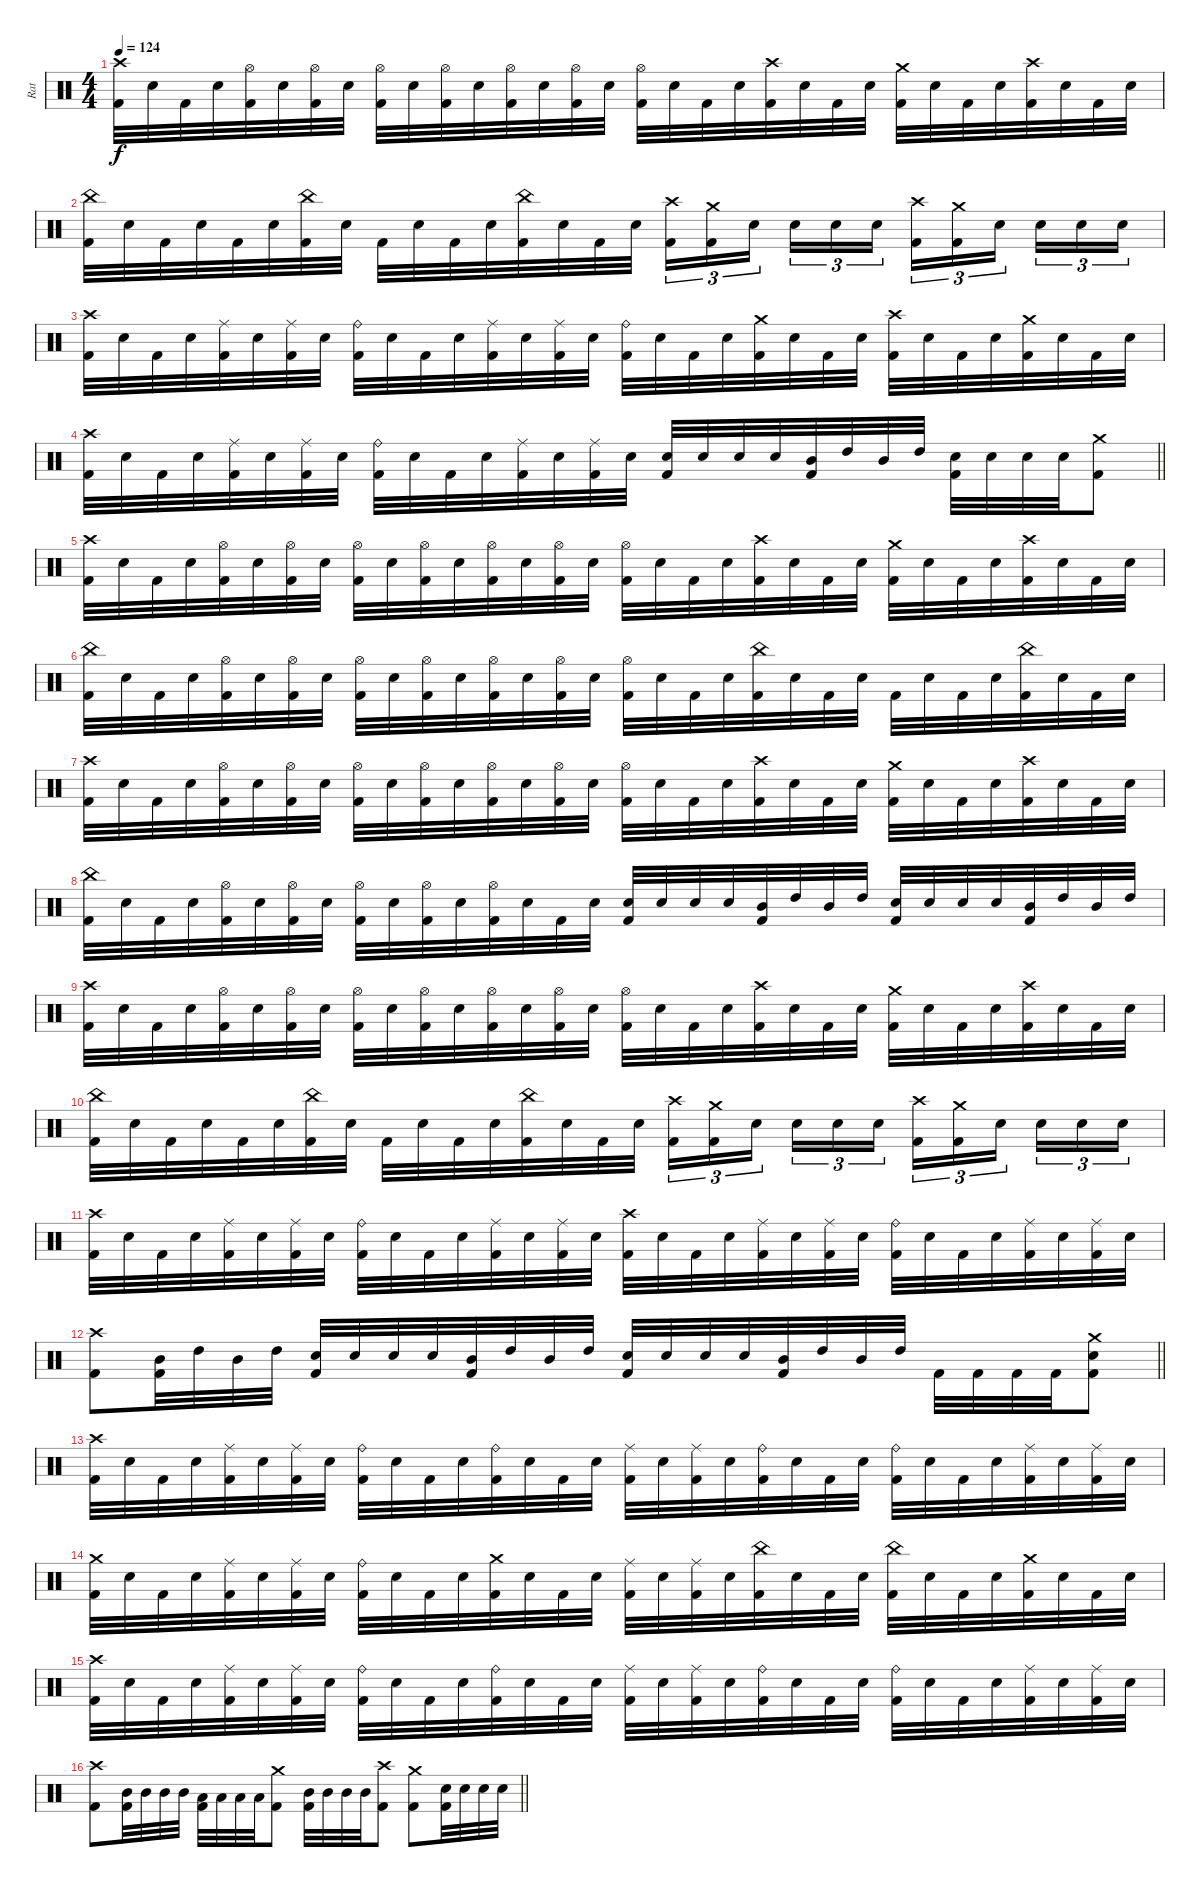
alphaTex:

\track ("Rat" "Rat") {instrument percussion}
\staff {score}
\articulation defaults
\ts (4 4)
\tempo 124
\clef neutral
\ks c
("Crash high (hit)" "Kick (hit) 2").32{dy f} "Electric Snare (hit)".32 "Kick (hit) 2".32 "Electric Snare (hit)".32 ("Hi-Hat (open)" "Kick (hit) 2").32 "Electric Snare (hit)".32 ("Hi-Hat (open)" "Kick (hit) 2").32 "Electric Snare (hit)".32 ("Hi-Hat (open)" "Kick (hit) 2").32 "Electric Snare (hit)".32 ("Hi-Hat (open)" "Kick (hit) 2").32 "Electric Snare (hit)".32 ("Hi-Hat (open)" "Kick (hit) 2").32 "Electric Snare (hit)".32 ("Hi-Hat (open)" "Kick (hit) 2").32 "Electric Snare (hit)".32 ("Hi-Hat (open)" "Kick (hit) 2").32 "Electric Snare (hit)".32 "Kick (hit) 2".32 "Electric Snare (hit)".32 ("Crash high (hit)" "Kick (hit) 2").32 "Electric Snare (hit)".32 "Kick (hit) 2".32 "Electric Snare (hit)".32 ("Crash medium (hit)" "Kick (hit) 2").32 "Electric Snare (hit)".32 "Kick (hit) 2".32 "Electric Snare (hit)".32 ("Crash high (hit)" "Kick (hit) 2").32 "Electric Snare (hit)".32 "Kick (hit) 2".32 "Electric Snare (hit)".32 |
("China (hit)" "Kick (hit) 2").32 "Electric Snare (hit)".32 "Kick (hit) 2".32 "Electric Snare (hit)".32 "Kick (hit) 2".32 "Electric Snare (hit)".32 ("China (hit)" "Kick (hit) 2").32 "Electric Snare (hit)".32 "Kick (hit) 2".32 "Electric Snare (hit)".32 "Kick (hit) 2".32 "Electric Snare (hit)".32 ("China (hit)" "Kick (hit) 2").32 "Electric Snare (hit)".32 "Kick (hit) 2".32 "Electric Snare (hit)".32 ("Crash high (hit)" "Kick (hit) 2").16{tu (3 2)} ("Crash medium (hit)" "Kick (hit) 2").16{tu (3 2)} "Electric Snare (hit)".16{tu (3 2) beam splitsecondary} "Electric Snare (hit)".16{tu (3 2)} "Electric Snare (hit)".16{tu (3 2)} "Electric Snare (hit)".16{tu (3 2)} ("Crash high (hit)" "Kick (hit) 2").16{tu (3 2)} ("Crash medium (hit)" "Kick (hit) 2").16{tu (3 2)} "Electric Snare (hit)".16{tu (3 2) beam splitsecondary} "Electric Snare (hit)".16{tu (3 2)} "Electric Snare (hit)".16{tu (3 2)} "Electric Snare (hit)".16{tu (3 2)} |
("Crash high (hit)" "Kick (hit) 2").32 "Electric Snare (hit)".32 "Kick (hit) 2".32 "Electric Snare (hit)".32 ("Ride (middle)" "Kick (hit) 2").32 "Electric Snare (hit)".32 ("Ride (middle)" "Kick (hit) 2").32 "Electric Snare (hit)".32 ("Ride (bell)" "Kick (hit) 2").32 "Electric Snare (hit)".32 "Kick (hit) 2".32 "Electric Snare (hit)".32 ("Ride (middle)" "Kick (hit) 2").32 "Electric Snare (hit)".32 ("Ride (middle)" "Kick (hit) 2").32 "Electric Snare (hit)".32 ("Ride (bell)" "Kick (hit) 2").32 "Electric Snare (hit)".32 "Kick (hit) 2".32 "Electric Snare (hit)".32 ("Crash medium (hit)" "Kick (hit) 2").32 "Electric Snare (hit)".32 "Kick (hit) 2".32 "Electric Snare (hit)".32 ("Crash high (hit)" "Kick (hit) 2").32 "Electric Snare (hit)".32 "Kick (hit) 2".32 "Electric Snare (hit)".32 ("Crash medium (hit)" "Kick (hit) 2").32 "Electric Snare (hit)".32 "Kick (hit) 2".32 "Electric Snare (hit)".32 |
\barLineRight lightlight
("Crash high (hit)" "Kick (hit) 2").32 "Electric Snare (hit)".32 "Kick (hit) 2".32 "Electric Snare (hit)".32 ("Ride (middle)" "Kick (hit) 2").32 "Electric Snare (hit)".32 ("Ride (middle)" "Kick (hit) 2").32 "Electric Snare (hit)".32 ("Ride (bell)" "Kick (hit) 2").32 "Electric Snare (hit)".32 "Kick (hit) 2".32 "Electric Snare (hit)".32 ("Ride (middle)" "Kick (hit) 2").32 "Electric Snare (hit)".32 ("Ride (middle)" "Kick (hit) 2").32 "Electric Snare (hit)".32 ("Electric Snare (hit)" "Kick (hit) 2").32 "Electric Snare (hit)".32 "Electric Snare (hit)".32 "Electric Snare (hit)".32 ("Mid Tom (hit)" "Kick (hit) 2").32 "High Tom (hit)".32 "Mid Tom (hit)".32 "High Tom (hit)".32 ("Electric Snare (hit)" "Kick (hit) 2").32 "Electric Snare (hit)".32 "Electric Snare (hit)".32 "Electric Snare (hit)".32 ("Crash medium (hit)" "Kick (hit) 2").8 |
("Crash high (hit)" "Kick (hit) 2").32 "Electric Snare (hit)".32 "Kick (hit) 2".32 "Electric Snare (hit)".32 ("Hi-Hat (open)" "Kick (hit) 2").32 "Electric Snare (hit)".32 ("Hi-Hat (open)" "Kick (hit) 2").32 "Electric Snare (hit)".32 ("Hi-Hat (open)" "Kick (hit) 2").32 "Electric Snare (hit)".32 ("Hi-Hat (open)" "Kick (hit) 2").32 "Electric Snare (hit)".32 ("Hi-Hat (open)" "Kick (hit) 2").32 "Electric Snare (hit)".32 ("Hi-Hat (open)" "Kick (hit) 2").32 "Electric Snare (hit)".32 ("Hi-Hat (open)" "Kick (hit) 2").32 "Electric Snare (hit)".32 "Kick (hit) 2".32 "Electric Snare (hit)".32 ("Crash high (hit)" "Kick (hit) 2").32 "Electric Snare (hit)".32 "Kick (hit) 2".32 "Electric Snare (hit)".32 ("Crash medium (hit)" "Kick (hit) 2").32 "Electric Snare (hit)".32 "Kick (hit) 2".32 "Electric Snare (hit)".32 ("Crash high (hit)" "Kick (hit) 2").32 "Electric Snare (hit)".32 "Kick (hit) 2".32 "Electric Snare (hit)".32 |
("China (hit)" "Kick (hit) 2").32 "Electric Snare (hit)".32 "Kick (hit) 2".32 "Electric Snare (hit)".32 ("Hi-Hat (open)" "Kick (hit) 2").32 "Electric Snare (hit)".32 ("Hi-Hat (open)" "Kick (hit) 2").32 "Electric Snare (hit)".32 ("Hi-Hat (open)" "Kick (hit) 2").32 "Electric Snare (hit)".32 ("Hi-Hat (open)" "Kick (hit) 2").32 "Electric Snare (hit)".32 ("Hi-Hat (open)" "Kick (hit) 2").32 "Electric Snare (hit)".32 ("Hi-Hat (open)" "Kick (hit) 2").32 "Electric Snare (hit)".32 ("Hi-Hat (open)" "Kick (hit) 2").32 "Electric Snare (hit)".32 "Kick (hit) 2".32 "Electric Snare (hit)".32 ("China (hit)" "Kick (hit) 2").32 "Electric Snare (hit)".32 "Kick (hit) 2".32 "Electric Snare (hit)".32 "Kick (hit) 2".32 "Electric Snare (hit)".32 "Kick (hit) 2".32 "Electric Snare (hit)".32 ("China (hit)" "Kick (hit) 2").32 "Electric Snare (hit)".32 "Kick (hit) 2".32 "Electric Snare (hit)".32 |
("Crash high (hit)" "Kick (hit) 2").32 "Electric Snare (hit)".32 "Kick (hit) 2".32 "Electric Snare (hit)".32 ("Hi-Hat (open)" "Kick (hit) 2").32 "Electric Snare (hit)".32 ("Hi-Hat (open)" "Kick (hit) 2").32 "Electric Snare (hit)".32 ("Hi-Hat (open)" "Kick (hit) 2").32 "Electric Snare (hit)".32 ("Hi-Hat (open)" "Kick (hit) 2").32 "Electric Snare (hit)".32 ("Hi-Hat (open)" "Kick (hit) 2").32 "Electric Snare (hit)".32 ("Hi-Hat (open)" "Kick (hit) 2").32 "Electric Snare (hit)".32 ("Hi-Hat (open)" "Kick (hit) 2").32 "Electric Snare (hit)".32 "Kick (hit) 2".32 "Electric Snare (hit)".32 ("Crash high (hit)" "Kick (hit) 2").32 "Electric Snare (hit)".32 "Kick (hit) 2".32 "Electric Snare (hit)".32 ("Crash medium (hit)" "Kick (hit) 2").32 "Electric Snare (hit)".32 "Kick (hit) 2".32 "Electric Snare (hit)".32 ("Crash high (hit)" "Kick (hit) 2").32 "Electric Snare (hit)".32 "Kick (hit) 2".32 "Electric Snare (hit)".32 |
("China (hit)" "Kick (hit) 2").32 "Electric Snare (hit)".32 "Kick (hit) 2".32 "Electric Snare (hit)".32 ("Hi-Hat (open)" "Kick (hit) 2").32 "Electric Snare (hit)".32 ("Hi-Hat (open)" "Kick (hit) 2").32 "Electric Snare (hit)".32 ("Hi-Hat (open)" "Kick (hit) 2").32 "Electric Snare (hit)".32 ("Hi-Hat (open)" "Kick (hit) 2").32 "Electric Snare (hit)".32 ("Hi-Hat (open)" "Kick (hit) 2").32 "Electric Snare (hit)".32 "Kick (hit) 2".32 "Electric Snare (hit)".32 ("Electric Snare (hit)" "Kick (hit) 2").32 "Electric Snare (hit)".32 "Electric Snare (hit)".32 "Electric Snare (hit)".32 ("Mid Tom (hit)" "Kick (hit) 2").32 "High Tom (hit)".32 "Mid Tom (hit)".32 "High Tom (hit)".32 ("Electric Snare (hit)" "Kick (hit) 2").32 "Electric Snare (hit)".32 "Electric Snare (hit)".32 "Electric Snare (hit)".32 ("Mid Tom (hit)" "Kick (hit) 2").32 "High Tom (hit)".32 "Mid Tom (hit)".32 "High Tom (hit)".32 |
("Crash high (hit)" "Kick (hit) 2").32 "Electric Snare (hit)".32 "Kick (hit) 2".32 "Electric Snare (hit)".32 ("Hi-Hat (open)" "Kick (hit) 2").32 "Electric Snare (hit)".32 ("Hi-Hat (open)" "Kick (hit) 2").32 "Electric Snare (hit)".32 ("Hi-Hat (open)" "Kick (hit) 2").32 "Electric Snare (hit)".32 ("Hi-Hat (open)" "Kick (hit) 2").32 "Electric Snare (hit)".32 ("Hi-Hat (open)" "Kick (hit) 2").32 "Electric Snare (hit)".32 ("Hi-Hat (open)" "Kick (hit) 2").32 "Electric Snare (hit)".32 ("Hi-Hat (open)" "Kick (hit) 2").32 "Electric Snare (hit)".32 "Kick (hit) 2".32 "Electric Snare (hit)".32 ("Crash high (hit)" "Kick (hit) 2").32 "Electric Snare (hit)".32 "Kick (hit) 2".32 "Electric Snare (hit)".32 ("Crash medium (hit)" "Kick (hit) 2").32 "Electric Snare (hit)".32 "Kick (hit) 2".32 "Electric Snare (hit)".32 ("Crash high (hit)" "Kick (hit) 2").32 "Electric Snare (hit)".32 "Kick (hit) 2".32 "Electric Snare (hit)".32 |
("China (hit)" "Kick (hit) 2").32 "Electric Snare (hit)".32 "Kick (hit) 2".32 "Electric Snare (hit)".32 "Kick (hit) 2".32 "Electric Snare (hit)".32 ("China (hit)" "Kick (hit) 2").32 "Electric Snare (hit)".32 "Kick (hit) 2".32 "Electric Snare (hit)".32 "Kick (hit) 2".32 "Electric Snare (hit)".32 ("China (hit)" "Kick (hit) 2").32 "Electric Snare (hit)".32 "Kick (hit) 2".32 "Electric Snare (hit)".32 ("Crash high (hit)" "Kick (hit) 2").16{tu (3 2)} ("Crash medium (hit)" "Kick (hit) 2").16{tu (3 2)} "Electric Snare (hit)".16{tu (3 2) beam splitsecondary} "Electric Snare (hit)".16{tu (3 2)} "Electric Snare (hit)".16{tu (3 2)} "Electric Snare (hit)".16{tu (3 2)} ("Crash high (hit)" "Kick (hit) 2").16{tu (3 2)} ("Crash medium (hit)" "Kick (hit) 2").16{tu (3 2)} "Electric Snare (hit)".16{tu (3 2) beam splitsecondary} "Electric Snare (hit)".16{tu (3 2)} "Electric Snare (hit)".16{tu (3 2)} "Electric Snare (hit)".16{tu (3 2)} |
("Crash high (hit)" "Kick (hit) 2").32 "Electric Snare (hit)".32 "Kick (hit) 2".32 "Electric Snare (hit)".32 ("Ride (middle)" "Kick (hit) 2").32 "Electric Snare (hit)".32 ("Ride (middle)" "Kick (hit) 2").32 "Electric Snare (hit)".32 ("Ride (bell)" "Kick (hit) 2").32 "Electric Snare (hit)".32 "Kick (hit) 2".32 "Electric Snare (hit)".32 ("Ride (middle)" "Kick (hit) 2").32 "Electric Snare (hit)".32 ("Ride (middle)" "Kick (hit) 2").32 "Electric Snare (hit)".32 ("Crash high (hit)" "Kick (hit) 2").32 "Electric Snare (hit)".32 "Kick (hit) 2".32 "Electric Snare (hit)".32 ("Ride (middle)" "Kick (hit) 2").32 "Electric Snare (hit)".32 ("Ride (middle)" "Kick (hit) 2").32 "Electric Snare (hit)".32 ("Ride (bell)" "Kick (hit) 2").32 "Electric Snare (hit)".32 "Kick (hit) 2".32 "Electric Snare (hit)".32 ("Ride (middle)" "Kick (hit) 2").32 "Electric Snare (hit)".32 ("Ride (middle)" "Kick (hit) 2").32 "Electric Snare (hit)".32 |
\barLineRight lightlight
("Crash high (hit)" "Kick (hit) 2").8 ("Mid Tom (hit)" "Kick (hit) 2").32 "High Tom (hit)".32 "Mid Tom (hit)".32 "High Tom (hit)".32 ("Electric Snare (hit)" "Kick (hit) 2").32 "Electric Snare (hit)".32 "Electric Snare (hit)".32 "Electric Snare (hit)".32 ("Mid Tom (hit)" "Kick (hit) 2").32 "High Tom (hit)".32 "Mid Tom (hit)".32 "High Tom (hit)".32 ("Electric Snare (hit)" "Kick (hit) 2").32 "Electric Snare (hit)".32 "Electric Snare (hit)".32 "Electric Snare (hit)".32 ("Mid Tom (hit)" "Kick (hit) 2").32 "High Tom (hit)".32 "Mid Tom (hit)".32 "High Tom (hit)".32 "Kick (hit) 2".32 "Kick (hit) 2".32 "Kick (hit) 2".32 "Kick (hit) 2".32 ("Crash medium (hit)" "Electric Snare (hit)" "Kick (hit) 2").8 |
("Crash high (hit)" "Kick (hit) 2").32 "Electric Snare (hit)".32 "Kick (hit) 2".32 "Electric Snare (hit)".32 ("Ride (middle)" "Kick (hit) 2").32 "Electric Snare (hit)".32 ("Ride (middle)" "Kick (hit) 2").32 "Electric Snare (hit)".32 ("Ride (bell)" "Kick (hit) 2").32 "Electric Snare (hit)".32 "Kick (hit) 2".32 "Electric Snare (hit)".32 ("Ride (bell)" "Kick (hit) 2").32 "Electric Snare (hit)".32 "Kick (hit) 2".32 "Electric Snare (hit)".32 ("Ride (middle)" "Kick (hit) 2").32 "Electric Snare (hit)".32 ("Ride (middle)" "Kick (hit) 2").32 "Electric Snare (hit)".32 ("Ride (bell)" "Kick (hit) 2").32 "Electric Snare (hit)".32 "Kick (hit) 2".32 "Electric Snare (hit)".32 ("Ride (bell)" "Kick (hit) 2").32 "Electric Snare (hit)".32 "Kick (hit) 2".32 "Electric Snare (hit)".32 ("Ride (middle)" "Kick (hit) 2").32 "Electric Snare (hit)".32 ("Ride (middle)" "Kick (hit) 2").32 "Electric Snare (hit)".32 |
("Crash medium (hit)" "Kick (hit) 2").32 "Electric Snare (hit)".32 "Kick (hit) 2".32 "Electric Snare (hit)".32 ("Ride (middle)" "Kick (hit) 2").32 "Electric Snare (hit)".32 ("Ride (middle)" "Kick (hit) 2").32 "Electric Snare (hit)".32 ("Ride (bell)" "Kick (hit) 2").32 "Electric Snare (hit)".32 "Kick (hit) 2".32 "Electric Snare (hit)".32 ("Crash medium (hit)" "Kick (hit) 2").32 "Electric Snare (hit)".32 "Kick (hit) 2".32 "Electric Snare (hit)".32 ("Ride (middle)" "Kick (hit) 2").32 "Electric Snare (hit)".32 ("Ride (middle)" "Kick (hit) 2").32 "Electric Snare (hit)".32 ("China (hit)" "Kick (hit) 2").32 "Electric Snare (hit)".32 "Kick (hit) 2".32 "Electric Snare (hit)".32 ("China (hit)" "Kick (hit) 2").32 "Electric Snare (hit)".32 "Kick (hit) 2".32 "Electric Snare (hit)".32 ("Crash medium (hit)" "Kick (hit) 2").32 "Electric Snare (hit)".32 "Kick (hit) 2".32 "Electric Snare (hit)".32 |
("Crash high (hit)" "Kick (hit) 2").32 "Electric Snare (hit)".32 "Kick (hit) 2".32 "Electric Snare (hit)".32 ("Ride (middle)" "Kick (hit) 2").32 "Electric Snare (hit)".32 ("Ride (middle)" "Kick (hit) 2").32 "Electric Snare (hit)".32 ("Ride (bell)" "Kick (hit) 2").32 "Electric Snare (hit)".32 "Kick (hit) 2".32 "Electric Snare (hit)".32 ("Ride (bell)" "Kick (hit) 2").32 "Electric Snare (hit)".32 "Kick (hit) 2".32 "Electric Snare (hit)".32 ("Ride (middle)" "Kick (hit) 2").32 "Electric Snare (hit)".32 ("Ride (middle)" "Kick (hit) 2").32 "Electric Snare (hit)".32 ("Ride (bell)" "Kick (hit) 2").32 "Electric Snare (hit)".32 "Kick (hit) 2".32 "Electric Snare (hit)".32 ("Ride (bell)" "Kick (hit) 2").32 "Electric Snare (hit)".32 "Kick (hit) 2".32 "Electric Snare (hit)".32 ("Ride (middle)" "Kick (hit) 2").32 "Electric Snare (hit)".32 ("Ride (middle)" "Kick (hit) 2").32 "Electric Snare (hit)".32 |
\barLineRight lightlight
("Crash high (hit)" "Kick (hit) 2").8 ("Mid Tom (hit)" "Kick (hit) 2").32 "Mid Tom (hit)".32 "Mid Tom (hit)".32 "Mid Tom (hit)".32 ("Low Tom (hit)" "Kick (hit) 2").32 "Low Tom (hit)".32 "Low Tom (hit)".32 "Low Tom (hit)".32 ("Crash medium (hit)" "Kick (hit) 2").8 ("Mid Tom (hit)" "Kick (hit) 2").32 "Mid Tom (hit)".32 "Mid Tom (hit)".32 "Mid Tom (hit)".32 ("Crash high (hit)" "Kick (hit) 2").8 ("Crash medium (hit)" "Kick (hit) 2").8 ("Electric Snare (hit)" "Kick (hit) 2").32 "Electric Snare (hit)".32 "Electric Snare (hit)".32 "Electric Snare (hit)".32
